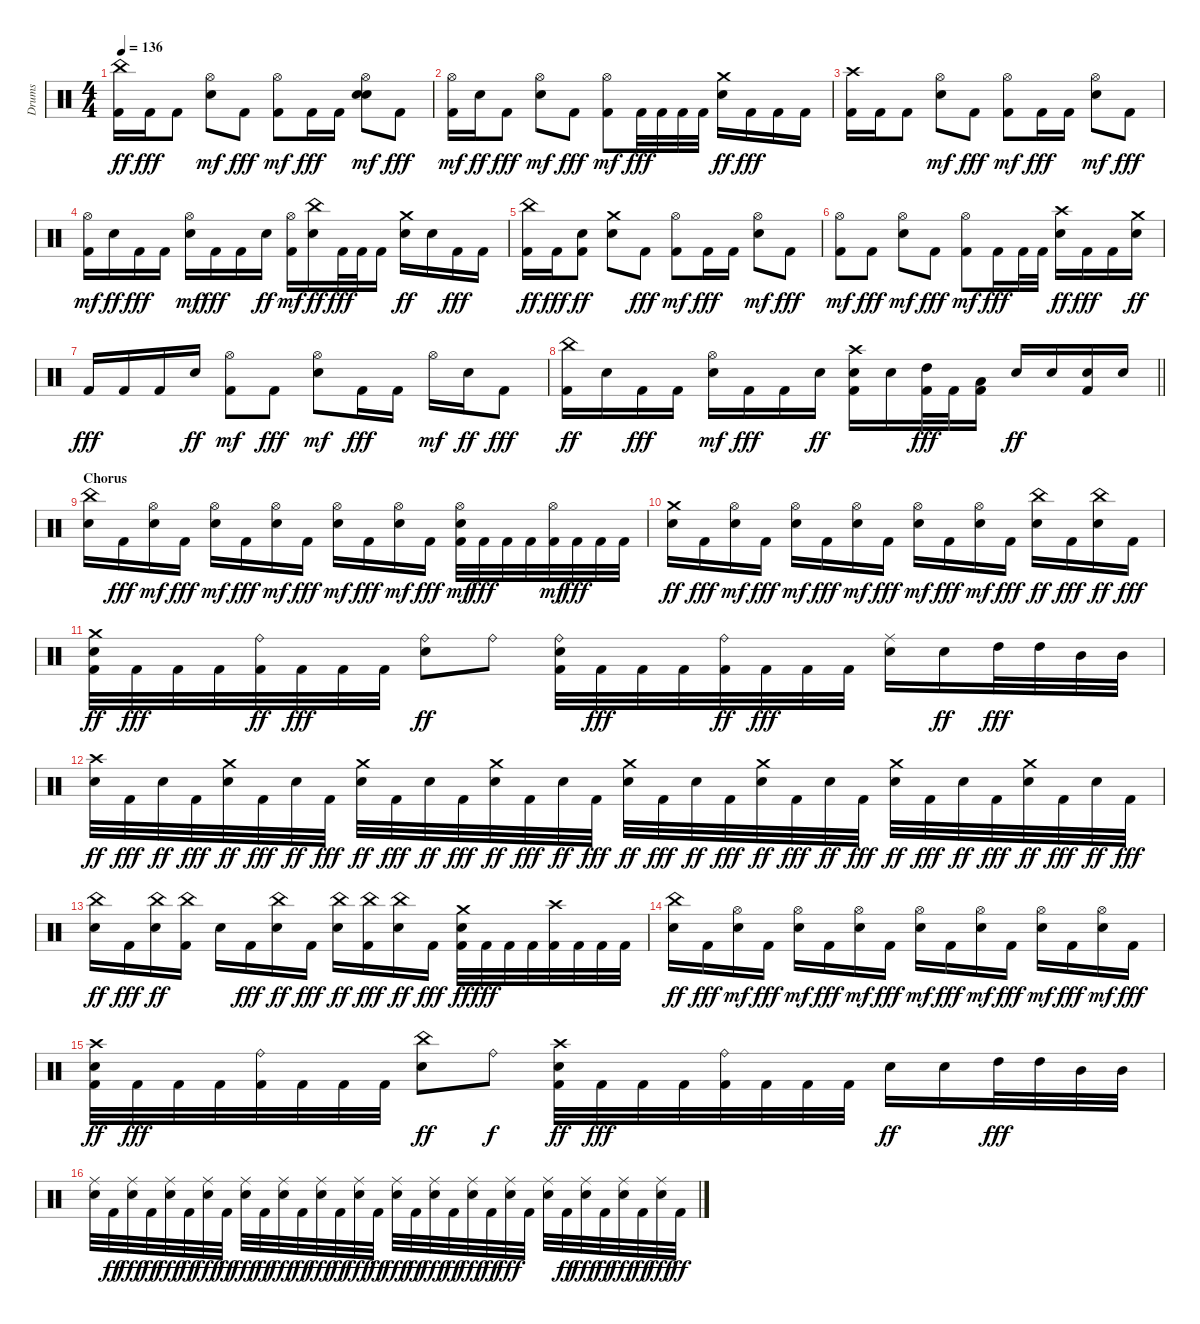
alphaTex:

\track ("Drums" "Drums") {instrument percussion}
\staff {score}
\articulation defaults
\ts (4 4)
\tempo 136
\clef neutral
\ks c
("Kick (hit) 2" "China (hit)").16{dy ff} "Kick (hit) 2".16{dy fff} "Kick (hit) 2".8 ("Snare (hit) 2" "Hi-Hat (open)").8{dy mf} "Kick (hit) 2".8{dy fff} ("Kick (hit) 2" "Hi-Hat (open)").8{dy mf} "Kick (hit) 2".16{dy fff} "Kick (hit) 2".16 ("Snare (hit) 2" "Snare (hit) 2" "Hi-Hat (open)").8{dy mf} "Kick (hit) 2".8{dy fff} |
("Kick (hit) 2" "Hi-Hat (open)").16{dy mf} "Snare (hit) 2".16{dy ff} "Kick (hit) 2".8{dy fff} ("Snare (hit) 2" "Hi-Hat (open)").8{dy mf} "Kick (hit) 2".8{dy fff} ("Kick (hit) 2" "Hi-Hat (open)").8{dy mf} "Kick (hit) 2".32{dy fff} "Kick (hit) 2".32 "Kick (hit) 2".32 "Kick (hit) 2".32 ("Snare (hit) 2" "Crash medium (hit)").16{dy ff} "Kick (hit) 2".16{dy fff} "Kick (hit) 2".16 "Kick (hit) 2".16 |
("Kick (hit) 2" "Crash high (hit)").16 "Kick (hit) 2".16 "Kick (hit) 2".8 ("Snare (hit) 2" "Hi-Hat (open)").8{dy mf} "Kick (hit) 2".8{dy fff} ("Kick (hit) 2" "Hi-Hat (open)").8{dy mf} "Kick (hit) 2".16{dy fff} "Kick (hit) 2".16 ("Snare (hit) 2" "Hi-Hat (open)").8{dy mf} "Kick (hit) 2".8{dy fff} |
("Kick (hit) 2" "Hi-Hat (open)").16{dy mf} "Snare (hit) 2".16{dy ff} "Kick (hit) 2".16{dy fff} "Kick (hit) 2".16 ("Snare (hit) 2" "Hi-Hat (open)").16{dy mf} "Kick (hit) 2".16{dy fff} "Kick (hit) 2".16 "Snare (hit) 2".16{dy ff} ("Kick (hit) 2" "Hi-Hat (open)").16{dy mf} ("Snare (hit) 2" "China (hit)").16{dy ff} "Kick (hit) 2".32{dy fff} "Kick (hit) 2".32 "Kick (hit) 2".16 ("Snare (hit) 2" "Crash medium (hit)").16{dy ff} "Snare (hit) 2".16 "Kick (hit) 2".16{dy fff} "Kick (hit) 2".16 |
("Kick (hit) 2" "China (hit)").16{dy ff} "Kick (hit) 2".16{dy fff} ("Kick (hit) 2" "Snare (hit) 2").8{dy ff} ("Snare (hit) 2" "Crash medium (hit)").8 "Kick (hit) 2".8{dy fff} ("Kick (hit) 2" "Hi-Hat (open)").8{dy mf} "Kick (hit) 2".16{dy fff} "Kick (hit) 2".16 ("Snare (hit) 2" "Hi-Hat (open)").8{dy mf} "Kick (hit) 2".8{dy fff} |
("Kick (hit) 2" "Hi-Hat (open)").8{dy mf} "Kick (hit) 2".8{dy fff} ("Snare (hit) 2" "Hi-Hat (open)").8{dy mf} "Kick (hit) 2".8{dy fff} ("Kick (hit) 2" "Hi-Hat (open)").8{dy mf} "Kick (hit) 2".16{dy fff} "Kick (hit) 2".32 "Kick (hit) 2".32 ("Snare (hit) 2" "Crash high (hit)").16{dy ff} "Kick (hit) 2".16{dy fff} "Kick (hit) 2".16 ("Snare (hit) 2" "Crash medium (hit)").16{dy ff} |
"Kick (hit) 2".16{dy fff} "Kick (hit) 2".16 "Kick (hit) 2".16 "Snare (hit) 2".16{dy ff} ("Kick (hit) 2" "Hi-Hat (open)").8{dy mf} "Kick (hit) 2".8{dy fff} ("Snare (hit) 2" "Hi-Hat (open)").8{dy mf} "Kick (hit) 2".16{dy fff} "Kick (hit) 2".16 "Hi-Hat (open)".16{dy mf} "Snare (hit) 2".16{dy ff} "Kick (hit) 2".8{dy fff} |
\barLineRight lightlight
("Kick (hit) 2" "China (hit)").16{dy ff} "Snare (hit) 2".16 "Kick (hit) 2".16{dy fff} "Kick (hit) 2".16 ("Snare (hit) 2" "Hi-Hat (open)").16{dy mf} "Kick (hit) 2".16{dy fff} "Kick (hit) 2".16 "Snare (hit) 2".16{dy ff} ("Kick (hit) 2" "Snare (hit) 2" "Crash high (hit)").16 "Snare (hit) 2".16 ("Kick (hit) 2" "High Tom (hit)").32{dy fff} "Kick (hit) 2".32 ("Kick (hit) 2" "Low Tom (hit)").16 "Snare (hit) 2".16{dy ff} "Snare (hit) 2".16 ("Kick (hit) 2" "Snare (hit) 2").16 "Snare (hit) 2".16 |
\section ("" "Chorus")
("Snare (hit) 2" "China (hit)").16 "Kick (hit) 2".16{dy fff} ("Snare (hit) 2" "Hi-Hat (open)").16{dy mf} "Kick (hit) 2".16{dy fff} ("Snare (hit) 2" "Hi-Hat (open)").16{dy mf} "Kick (hit) 2".16{dy fff} ("Snare (hit) 2" "Hi-Hat (open)").16{dy mf} "Kick (hit) 2".16{dy fff} ("Snare (hit) 2" "Hi-Hat (open)").16{dy mf} "Kick (hit) 2".16{dy fff} ("Snare (hit) 2" "Hi-Hat (open)").16{dy mf} "Kick (hit) 2".16{dy fff} ("Kick (hit) 2" "Snare (hit) 2" "Hi-Hat (open)").32{dy mf} "Kick (hit) 2".32{dy fff} "Kick (hit) 2".32 "Kick (hit) 2".32 ("Kick (hit) 2" "Hi-Hat (open)").32{dy mf} "Kick (hit) 2".32{dy fff} "Kick (hit) 2".32 "Kick (hit) 2".32 |
("Snare (hit) 2" "Crash medium (hit)").16{dy ff} "Kick (hit) 2".16{dy fff} ("Snare (hit) 2" "Hi-Hat (open)").16{dy mf} "Kick (hit) 2".16{dy fff} ("Snare (hit) 2" "Hi-Hat (open)").16{dy mf} "Kick (hit) 2".16{dy fff} ("Snare (hit) 2" "Hi-Hat (open)").16{dy mf} "Kick (hit) 2".16{dy fff} ("Snare (hit) 2" "Hi-Hat (open)").16{dy mf} "Kick (hit) 2".16{dy fff} ("Snare (hit) 2" "Hi-Hat (open)").16{dy mf} "Kick (hit) 2".16{dy fff} ("Snare (hit) 2" "China (hit)").16{dy ff} "Kick (hit) 2".16{dy fff} ("Snare (hit) 2" "China (hit)").16{dy ff} "Kick (hit) 2".16{dy fff} |
("Kick (hit) 2" "Snare (hit) 2" "Crash medium (hit)").32{dy ff} "Kick (hit) 2".32{dy fff} "Kick (hit) 2".32 "Kick (hit) 2".32 ("Kick (hit) 2" "Ride (bell)").32{dy ff} "Kick (hit) 2".32{dy fff} "Kick (hit) 2".32 "Kick (hit) 2".32 ("Snare (hit) 2" "Ride (bell)").8{dy ff} "Ride (bell)".8 ("Kick (hit) 2" "Snare (hit) 2" "Ride (bell)").32 "Kick (hit) 2".32{dy fff} "Kick (hit) 2".32 "Kick (hit) 2".32 ("Kick (hit) 2" "Ride (bell)").32{dy ff} "Kick (hit) 2".32{dy fff} "Kick (hit) 2".32 "Kick (hit) 2".32 ("Snare (hit) 2" "Ride (middle)").16 "Snare (hit) 2".16{dy ff} "High Tom (hit)".32{dy fff} "High Tom (hit)".32 "Mid Tom (hit)".32 "Mid Tom (hit)".32 |
("Snare (hit) 2" "Crash high (hit)").32{dy ff} "Kick (hit) 2".32{dy fff} "Snare (hit) 2".32{dy ff} "Kick (hit) 2".32{dy fff} ("Snare (hit) 2" "Crash medium (hit)").32{dy ff} "Kick (hit) 2".32{dy fff} "Snare (hit) 2".32{dy ff} "Kick (hit) 2".32{dy fff} ("Snare (hit) 2" "Crash medium (hit)").32{dy ff} "Kick (hit) 2".32{dy fff} "Snare (hit) 2".32{dy ff} "Kick (hit) 2".32{dy fff} ("Snare (hit) 2" "Crash medium (hit)").32{dy ff} "Kick (hit) 2".32{dy fff} "Snare (hit) 2".32{dy ff} "Kick (hit) 2".32{dy fff} ("Snare (hit) 2" "Crash medium (hit)").32{dy ff} "Kick (hit) 2".32{dy fff} "Snare (hit) 2".32{dy ff} "Kick (hit) 2".32{dy fff} ("Snare (hit) 2" "Crash medium (hit)").32{dy ff} "Kick (hit) 2".32{dy fff} "Snare (hit) 2".32{dy ff} "Kick (hit) 2".32{dy fff} ("Snare (hit) 2" "Crash medium (hit)").32{dy ff} "Kick (hit) 2".32{dy fff} "Snare (hit) 2".32{dy ff} "Kick (hit) 2".32{dy fff} ("Snare (hit) 2" "Crash medium (hit)").32{dy ff} "Kick (hit) 2".32{dy fff} "Snare (hit) 2".32{dy ff} "Kick (hit) 2".32{dy fff} |
("Snare (hit) 2" "China (hit)").16{dy ff} "Kick (hit) 2".16{dy fff} ("Snare (hit) 2" "China (hit)").16{dy ff} ("Kick (hit) 2" "China (hit)").16 "Snare (hit) 2".16 "Kick (hit) 2".16{dy fff} ("Snare (hit) 2" "China (hit)").16{dy ff} "Kick (hit) 2".16{dy fff} ("Snare (hit) 2" "China (hit)").16{dy ff} ("Kick (hit) 2" "China (hit)").16{dy fff} ("Snare (hit) 2" "China (hit)").16{dy ff} "Kick (hit) 2".16{dy fff} ("Kick (hit) 2" "Snare (hit) 2" "Crash medium (hit)").32{dy ff} "Kick (hit) 2".32{dy fff} "Kick (hit) 2".32 "Kick (hit) 2".32 ("Kick (hit) 2" "Crash high (hit)").32 "Kick (hit) 2".32 "Kick (hit) 2".32 "Kick (hit) 2".32 |
("Snare (hit) 2" "China (hit)").16{dy ff} "Kick (hit) 2".16{dy fff} ("Snare (hit) 2" "Hi-Hat (open)").16{dy mf} "Kick (hit) 2".16{dy fff} ("Snare (hit) 2" "Hi-Hat (open)").16{dy mf} "Kick (hit) 2".16{dy fff} ("Snare (hit) 2" "Hi-Hat (open)").16{dy mf} "Kick (hit) 2".16{dy fff} ("Snare (hit) 2" "Hi-Hat (open)").16{dy mf} "Kick (hit) 2".16{dy fff} ("Snare (hit) 2" "Hi-Hat (open)").16{dy mf} "Kick (hit) 2".16{dy fff} ("Snare (hit) 2" "Hi-Hat (open)").16{dy mf} "Kick (hit) 2".16{dy fff} ("Snare (hit) 2" "Hi-Hat (open)").16{dy mf} "Kick (hit) 2".16{dy fff} |
("Kick (hit) 2" "Snare (hit) 2" "Crash high (hit)").32{dy ff} "Kick (hit) 2".32{dy fff} "Kick (hit) 2".32 "Kick (hit) 2".32 ("Kick (hit) 2" "Ride (bell)").32 "Kick (hit) 2".32 "Kick (hit) 2".32 "Kick (hit) 2".32 ("Snare (hit) 2" "China (hit)").8{dy ff} "Ride (bell)".8{dy f} ("Kick (hit) 2" "Snare (hit) 2" "Crash high (hit)").32{dy ff} "Kick (hit) 2".32{dy fff} "Kick (hit) 2".32 "Kick (hit) 2".32 ("Kick (hit) 2" "Ride (bell)").32 "Kick (hit) 2".32 "Kick (hit) 2".32 "Kick (hit) 2".32 "Snare (hit) 2".16{dy ff} "Snare (hit) 2".16 "High Tom (hit)".32{dy fff} "High Tom (hit)".32 "Mid Tom (hit)".32 "Mid Tom (hit)".32 |
("Snare (hit) 2" "Ride (middle)").32 "Kick (hit) 2".32{dy ff} ("Snare (hit) 2" "Ride (middle)").32{dy fff} "Kick (hit) 2".32{dy ff} ("Snare (hit) 2" "Ride (middle)").32{dy fff} "Kick (hit) 2".32{dy ff} ("Snare (hit) 2" "Ride (middle)").32{dy fff} "Kick (hit) 2".32{dy ff} ("Snare (hit) 2" "Ride (middle)").32{dy fff} "Kick (hit) 2".32{dy ff} ("Snare (hit) 2" "Ride (middle)").32{dy fff} "Kick (hit) 2".32{dy ff} ("Snare (hit) 2" "Ride (middle)").32{dy fff} "Kick (hit) 2".32{dy ff} ("Snare (hit) 2" "Ride (middle)").32{dy fff} "Kick (hit) 2".32{dy ff} ("Snare (hit) 2" "Ride (middle)").32{dy fff} "Kick (hit) 2".32{dy ff} ("Snare (hit) 2" "Ride (middle)").32{dy fff} "Kick (hit) 2".32{dy ff} ("Snare (hit) 2" "Ride (middle)").32{dy fff} "Kick (hit) 2".32{dy ff} ("Snare (hit) 2" "Ride (middle)").32{dy fff} "Kick (hit) 2".32 ("Snare (hit) 2" "Ride (middle)").32 "Kick (hit) 2".32{dy ff} ("Snare (hit) 2" "Ride (middle)").32{dy fff} "Kick (hit) 2".32{dy ff} ("Snare (hit) 2" "Ride (middle)").32{dy fff} "Kick (hit) 2".32{dy ff} ("Snare (hit) 2" "Ride (middle)").32{dy fff} "Kick (hit) 2".32{dy ff}
